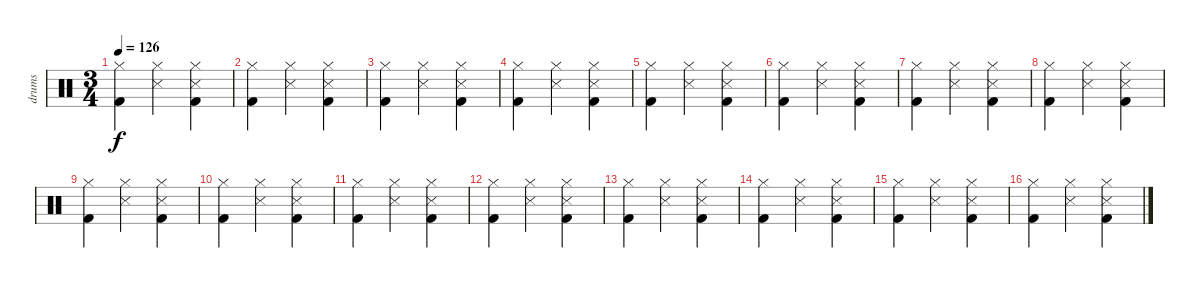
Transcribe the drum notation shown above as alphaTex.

\track ("drums" "drums") {instrument percussion}
\staff {score}
\articulation defaults
\ts (3 4)
\tempo 126
\clef neutral
\ks c
("Hi-Hat (closed)" "Kick (hit) 2").4{dy f} ("Hi-Hat (closed)" "Snare (side stick) 3").4 ("Hi-Hat (closed)" "Snare (side stick) 3" "Kick (hit) 2").4 |
("Hi-Hat (closed)" "Kick (hit) 2").4 ("Hi-Hat (closed)" "Snare (side stick) 3").4 ("Hi-Hat (closed)" "Snare (side stick) 3" "Kick (hit) 2").4 |
("Hi-Hat (closed)" "Kick (hit) 2").4 ("Hi-Hat (closed)" "Snare (side stick) 3").4 ("Hi-Hat (closed)" "Snare (side stick) 3" "Kick (hit) 2").4 |
("Hi-Hat (closed)" "Kick (hit) 2").4 ("Hi-Hat (closed)" "Snare (side stick) 3").4 ("Hi-Hat (closed)" "Snare (side stick) 3" "Kick (hit) 2").4 |
("Hi-Hat (closed)" "Kick (hit) 2").4 ("Hi-Hat (closed)" "Snare (side stick) 3").4 ("Hi-Hat (closed)" "Snare (side stick) 3" "Kick (hit) 2").4 |
("Hi-Hat (closed)" "Kick (hit) 2").4 ("Hi-Hat (closed)" "Snare (side stick) 3").4 ("Hi-Hat (closed)" "Snare (side stick) 3" "Kick (hit) 2").4 |
("Hi-Hat (closed)" "Kick (hit) 2").4 ("Hi-Hat (closed)" "Snare (side stick) 3").4 ("Hi-Hat (closed)" "Snare (side stick) 3" "Kick (hit) 2").4 |
("Hi-Hat (closed)" "Kick (hit) 2").4 ("Hi-Hat (closed)" "Snare (side stick) 3").4 ("Hi-Hat (closed)" "Snare (side stick) 3" "Kick (hit) 2").4 |
("Hi-Hat (closed)" "Kick (hit) 2").4 ("Hi-Hat (closed)" "Snare (side stick) 3").4 ("Hi-Hat (closed)" "Snare (side stick) 3" "Kick (hit) 2").4 |
("Hi-Hat (closed)" "Kick (hit) 2").4 ("Hi-Hat (closed)" "Snare (side stick) 3").4 ("Hi-Hat (closed)" "Snare (side stick) 3" "Kick (hit) 2").4 |
("Hi-Hat (closed)" "Kick (hit) 2").4 ("Hi-Hat (closed)" "Snare (side stick) 3").4 ("Hi-Hat (closed)" "Snare (side stick) 3" "Kick (hit) 2").4 |
("Hi-Hat (closed)" "Kick (hit) 2").4 ("Hi-Hat (closed)" "Snare (side stick) 3").4 ("Hi-Hat (closed)" "Snare (side stick) 3" "Kick (hit) 2").4 |
("Hi-Hat (closed)" "Kick (hit) 2").4 ("Hi-Hat (closed)" "Snare (side stick) 3").4 ("Hi-Hat (closed)" "Snare (side stick) 3" "Kick (hit) 2").4 |
("Hi-Hat (closed)" "Kick (hit) 2").4 ("Hi-Hat (closed)" "Snare (side stick) 3").4 ("Hi-Hat (closed)" "Snare (side stick) 3" "Kick (hit) 2").4 |
("Hi-Hat (closed)" "Kick (hit) 2").4 ("Hi-Hat (closed)" "Snare (side stick) 3").4 ("Hi-Hat (closed)" "Snare (side stick) 3" "Kick (hit) 2").4 |
("Hi-Hat (closed)" "Kick (hit) 2").4 ("Hi-Hat (closed)" "Snare (side stick) 3").4 ("Hi-Hat (closed)" "Snare (side stick) 3" "Kick (hit) 2").4
